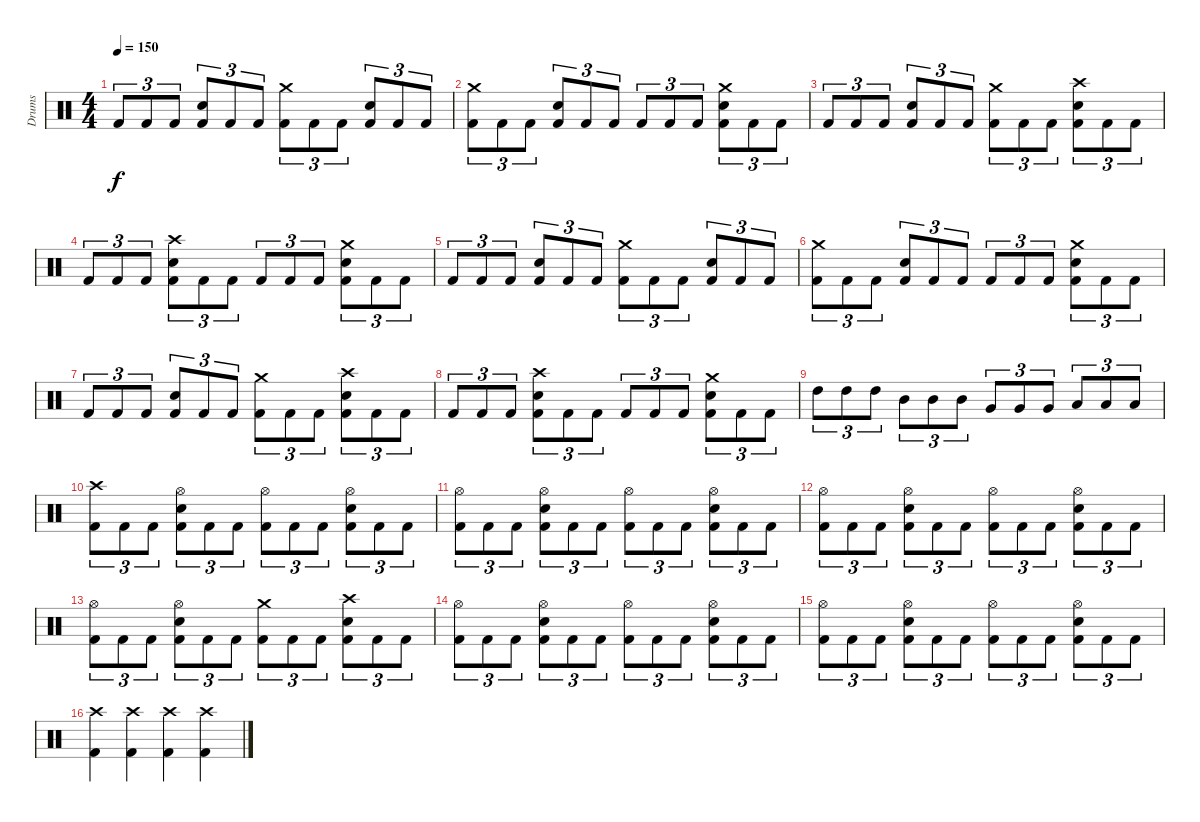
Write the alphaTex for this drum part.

\track ("Drums" "Drums") {instrument percussion}
\staff {score}
\articulation defaults
\ts (4 4)
\tempo 150
\clef neutral
\ks c "Kick (hit) 2".8{tu (3 2) dy f} "Kick (hit) 2".8{tu (3 2)} "Kick (hit) 2".8{tu (3 2)}
("Snare (hit) 2" "Kick (hit) 2").8{tu (3 2)} "Kick (hit) 2".8{tu (3 2)} "Kick (hit) 2".8{tu (3 2)} ("Crash medium (hit)" "Kick (hit) 2").8{tu (3 2)} "Kick (hit) 2".8{tu (3 2)} "Kick (hit) 2".8{tu (3 2)} ("Snare (hit) 2" "Kick (hit) 2").8{tu (3 2)} "Kick (hit) 2".8{tu (3 2)} "Kick (hit) 2".8{tu (3 2)} |
("Crash medium (hit)" "Kick (hit) 2").8{tu (3 2)} "Kick (hit) 2".8{tu (3 2)} "Kick (hit) 2".8{tu (3 2)} ("Snare (hit) 2" "Kick (hit) 2").8{tu (3 2)} "Kick (hit) 2".8{tu (3 2)} "Kick (hit) 2".8{tu (3 2)} "Kick (hit) 2".8{tu (3 2)} "Kick (hit) 2".8{tu (3 2)} "Kick (hit) 2".8{tu (3 2)} ("Crash medium (hit)" "Snare (hit) 2" "Kick (hit) 2").8{tu (3 2)} "Kick (hit) 2".8{tu (3 2)} "Kick (hit) 2".8{tu (3 2)} |
"Kick (hit) 2".8{tu (3 2)} "Kick (hit) 2".8{tu (3 2)} "Kick (hit) 2".8{tu (3 2)} ("Snare (hit) 2" "Kick (hit) 2").8{tu (3 2)} "Kick (hit) 2".8{tu (3 2)} "Kick (hit) 2".8{tu (3 2)} ("Crash medium (hit)" "Kick (hit) 2").8{tu (3 2)} "Kick (hit) 2".8{tu (3 2)} "Kick (hit) 2".8{tu (3 2)} ("Crash high (hit)" "Snare (hit) 2" "Kick (hit) 2").8{tu (3 2)} "Kick (hit) 2".8{tu (3 2)} "Kick (hit) 2".8{tu (3 2)} |
"Kick (hit) 2".8{tu (3 2)} "Kick (hit) 2".8{tu (3 2)} "Kick (hit) 2".8{tu (3 2)} ("Crash high (hit)" "Snare (hit) 2" "Kick (hit) 2").8{tu (3 2)} "Kick (hit) 2".8{tu (3 2)} "Kick (hit) 2".8{tu (3 2)} "Kick (hit) 2".8{tu (3 2)} "Kick (hit) 2".8{tu (3 2)} "Kick (hit) 2".8{tu (3 2)} ("Crash medium (hit)" "Snare (hit) 2" "Kick (hit) 2").8{tu (3 2)} "Kick (hit) 2".8{tu (3 2)} "Kick (hit) 2".8{tu (3 2)} |
"Kick (hit) 2".8{tu (3 2)} "Kick (hit) 2".8{tu (3 2)} "Kick (hit) 2".8{tu (3 2)} ("Snare (hit) 2" "Kick (hit) 2").8{tu (3 2)} "Kick (hit) 2".8{tu (3 2)} "Kick (hit) 2".8{tu (3 2)} ("Crash medium (hit)" "Kick (hit) 2").8{tu (3 2)} "Kick (hit) 2".8{tu (3 2)} "Kick (hit) 2".8{tu (3 2)} ("Snare (hit) 2" "Kick (hit) 2").8{tu (3 2)} "Kick (hit) 2".8{tu (3 2)} "Kick (hit) 2".8{tu (3 2)} |
("Crash medium (hit)" "Kick (hit) 2").8{tu (3 2)} "Kick (hit) 2".8{tu (3 2)} "Kick (hit) 2".8{tu (3 2)} ("Snare (hit) 2" "Kick (hit) 2").8{tu (3 2)} "Kick (hit) 2".8{tu (3 2)} "Kick (hit) 2".8{tu (3 2)} "Kick (hit) 2".8{tu (3 2)} "Kick (hit) 2".8{tu (3 2)} "Kick (hit) 2".8{tu (3 2)} ("Crash medium (hit)" "Snare (hit) 2" "Kick (hit) 2").8{tu (3 2)} "Kick (hit) 2".8{tu (3 2)} "Kick (hit) 2".8{tu (3 2)} |
"Kick (hit) 2".8{tu (3 2)} "Kick (hit) 2".8{tu (3 2)} "Kick (hit) 2".8{tu (3 2)} ("Snare (hit) 2" "Kick (hit) 2").8{tu (3 2)} "Kick (hit) 2".8{tu (3 2)} "Kick (hit) 2".8{tu (3 2)} ("Crash medium (hit)" "Kick (hit) 2").8{tu (3 2)} "Kick (hit) 2".8{tu (3 2)} "Kick (hit) 2".8{tu (3 2)} ("Crash high (hit)" "Snare (hit) 2" "Kick (hit) 2").8{tu (3 2)} "Kick (hit) 2".8{tu (3 2)} "Kick (hit) 2".8{tu (3 2)} |
"Kick (hit) 2".8{tu (3 2)} "Kick (hit) 2".8{tu (3 2)} "Kick (hit) 2".8{tu (3 2)} ("Crash high (hit)" "Snare (hit) 2" "Kick (hit) 2").8{tu (3 2)} "Kick (hit) 2".8{tu (3 2)} "Kick (hit) 2".8{tu (3 2)} "Kick (hit) 2".8{tu (3 2)} "Kick (hit) 2".8{tu (3 2)} "Kick (hit) 2".8{tu (3 2)} ("Crash medium (hit)" "Snare (hit) 2" "Kick (hit) 2").8{tu (3 2)} "Kick (hit) 2".8{tu (3 2)} "Kick (hit) 2".8{tu (3 2)} |
"High Tom (hit)".8{tu (3 2)} "High Tom (hit)".8{tu (3 2)} "High Tom (hit)".8{tu (3 2)} "Mid Tom (hit)".8{tu (3 2)} "Mid Tom (hit)".8{tu (3 2)} "Mid Tom (hit)".8{tu (3 2)} "Very Low Tom (hit)".8{tu (3 2)} "Very Low Tom (hit)".8{tu (3 2)} "Very Low Tom (hit)".8{tu (3 2)} "Low Floor Tom (hit)".8{tu (3 2)} "Low Floor Tom (hit)".8{tu (3 2)} "Low Floor Tom (hit)".8{tu (3 2)} |
("Crash high (hit)" "Kick (hit) 2").8{tu (3 2)} "Kick (hit) 2".8{tu (3 2)} "Kick (hit) 2".8{tu (3 2)} ("Hi-Hat (open)" "Snare (hit) 2" "Kick (hit) 2").8{tu (3 2)} "Kick (hit) 2".8{tu (3 2)} "Kick (hit) 2".8{tu (3 2)} ("Hi-Hat (open)" "Kick (hit) 2").8{tu (3 2)} "Kick (hit) 2".8{tu (3 2)} "Kick (hit) 2".8{tu (3 2)} ("Hi-Hat (open)" "Snare (hit) 2" "Kick (hit) 2").8{tu (3 2)} "Kick (hit) 2".8{tu (3 2)} "Kick (hit) 2".8{tu (3 2)} |
("Hi-Hat (open)" "Kick (hit) 2").8{tu (3 2)} "Kick (hit) 2".8{tu (3 2)} "Kick (hit) 2".8{tu (3 2)} ("Hi-Hat (open)" "Snare (hit) 2" "Kick (hit) 2").8{tu (3 2)} "Kick (hit) 2".8{tu (3 2)} "Kick (hit) 2".8{tu (3 2)} ("Hi-Hat (open)" "Kick (hit) 2").8{tu (3 2)} "Kick (hit) 2".8{tu (3 2)} "Kick (hit) 2".8{tu (3 2)} ("Hi-Hat (open)" "Snare (hit) 2" "Kick (hit) 2").8{tu (3 2)} "Kick (hit) 2".8{tu (3 2)} "Kick (hit) 2".8{tu (3 2)} |
("Hi-Hat (open)" "Kick (hit) 2").8{tu (3 2)} "Kick (hit) 2".8{tu (3 2)} "Kick (hit) 2".8{tu (3 2)} ("Hi-Hat (open)" "Snare (hit) 2" "Kick (hit) 2").8{tu (3 2)} "Kick (hit) 2".8{tu (3 2)} "Kick (hit) 2".8{tu (3 2)} ("Hi-Hat (open)" "Kick (hit) 2").8{tu (3 2)} "Kick (hit) 2".8{tu (3 2)} "Kick (hit) 2".8{tu (3 2)} ("Hi-Hat (open)" "Snare (hit) 2" "Kick (hit) 2").8{tu (3 2)} "Kick (hit) 2".8{tu (3 2)} "Kick (hit) 2".8{tu (3 2)} |
("Hi-Hat (open)" "Kick (hit) 2").8{tu (3 2)} "Kick (hit) 2".8{tu (3 2)} "Kick (hit) 2".8{tu (3 2)} ("Hi-Hat (open)" "Snare (hit) 2" "Kick (hit) 2").8{tu (3 2)} "Kick (hit) 2".8{tu (3 2)} "Kick (hit) 2".8{tu (3 2)} ("Crash medium (hit)" "Kick (hit) 2").8{tu (3 2)} "Kick (hit) 2".8{tu (3 2)} "Kick (hit) 2".8{tu (3 2)} ("Crash high (hit)" "Snare (hit) 2" "Kick (hit) 2").8{tu (3 2)} "Kick (hit) 2".8{tu (3 2)} "Kick (hit) 2".8{tu (3 2)} |
("Hi-Hat (open)" "Kick (hit) 2").8{tu (3 2)} "Kick (hit) 2".8{tu (3 2)} "Kick (hit) 2".8{tu (3 2)} ("Hi-Hat (open)" "Snare (hit) 2" "Kick (hit) 2").8{tu (3 2)} "Kick (hit) 2".8{tu (3 2)} "Kick (hit) 2".8{tu (3 2)} ("Hi-Hat (open)" "Kick (hit) 2").8{tu (3 2)} "Kick (hit) 2".8{tu (3 2)} "Kick (hit) 2".8{tu (3 2)} ("Hi-Hat (open)" "Snare (hit) 2" "Kick (hit) 2").8{tu (3 2)} "Kick (hit) 2".8{tu (3 2)} "Kick (hit) 2".8{tu (3 2)} |
("Hi-Hat (open)" "Kick (hit) 2").8{tu (3 2)} "Kick (hit) 2".8{tu (3 2)} "Kick (hit) 2".8{tu (3 2)} ("Hi-Hat (open)" "Snare (hit) 2" "Kick (hit) 2").8{tu (3 2)} "Kick (hit) 2".8{tu (3 2)} "Kick (hit) 2".8{tu (3 2)} ("Hi-Hat (open)" "Kick (hit) 2").8{tu (3 2)} "Kick (hit) 2".8{tu (3 2)} "Kick (hit) 2".8{tu (3 2)} ("Hi-Hat (open)" "Snare (hit) 2" "Kick (hit) 2").8{tu (3 2)} "Kick (hit) 2".8{tu (3 2)} "Kick (hit) 2".8{tu (3 2)} |
("Crash high (hit)" "Kick (hit) 2").4 ("Crash high (hit)" "Kick (hit) 2").4 ("Crash high (hit)" "Kick (hit) 2").4 ("Crash high (hit)" "Kick (hit) 2").4
